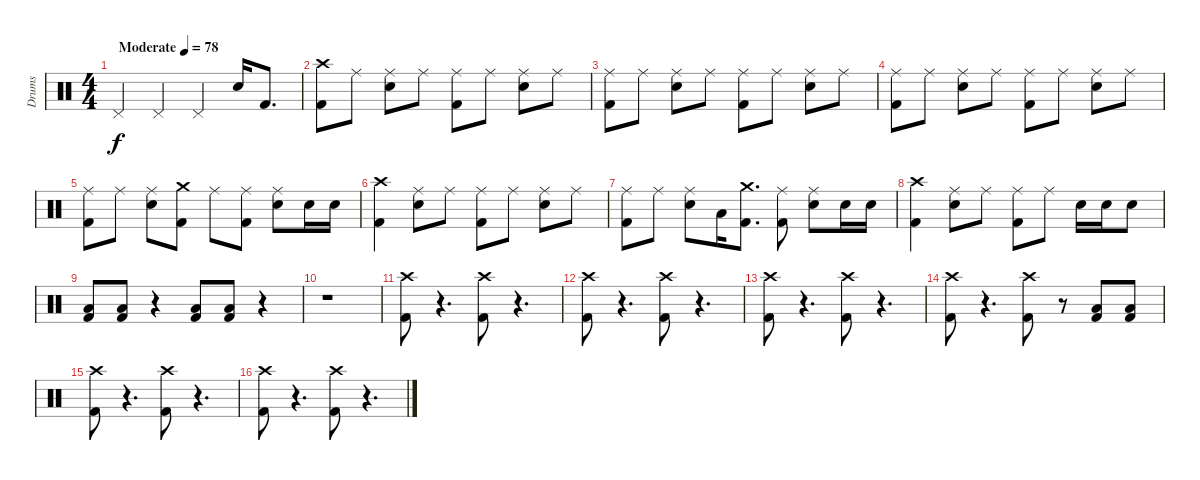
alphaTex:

\track ("Drums" "Drums") {instrument percussion}
\staff {score}
\articulation defaults
\ts (4 4)
\tempo (78 "Moderate")
\clef neutral
\ks c "Pedal Hi-Hat (hit)".4{dy f} "Pedal Hi-Hat (hit)".4 "Pedal Hi-Hat (hit)".4 "Snare (hit) 2".16 "Kick (hit) 2".8{d}
|
("Crash high (hit)" "Kick (hit) 2").8 "Ride (middle)".8 ("Ride (middle)" "Snare (hit) 2").8 "Ride (middle)".8 ("Ride (middle)" "Kick (hit) 2").8 "Ride (middle)".8 ("Ride (middle)" "Snare (hit) 2").8 "Ride (middle)".8 |
("Ride (middle)" "Kick (hit) 2").8 "Ride (middle)".8 ("Ride (middle)" "Snare (hit) 2").8 "Ride (middle)".8 ("Ride (middle)" "Kick (hit) 2").8 "Ride (middle)".8 ("Ride (middle)" "Snare (hit) 2").8 "Ride (middle)".8 |
("Ride (middle)" "Kick (hit) 2").8 "Ride (middle)".8 ("Ride (middle)" "Snare (hit) 2").8 "Ride (middle)".8 ("Ride (middle)" "Kick (hit) 2").8 "Ride (middle)".8 ("Ride (middle)" "Snare (hit) 2").8 "Ride (middle)".8 |
("Ride (middle)" "Kick (hit) 2").8 "Ride (middle)".8 ("Ride (middle)" "Snare (hit) 2").8 ("Crash medium (hit)" "Kick (hit) 2").8 "Ride (middle)".8 ("Ride (middle)" "Kick (hit) 2").8 ("Ride (middle)" "Snare (hit) 2").8 "Snare (hit) 2".16 "Snare (hit) 2".16 |
("Crash high (hit)" "Kick (hit) 2").4 ("Ride (middle)" "Snare (hit) 2").8 "Ride (middle)".8 ("Ride (middle)" "Kick (hit) 2").8 "Ride (middle)".8 ("Ride (middle)" "Snare (hit) 2").8 "Ride (middle)".8 |
("Ride (middle)" "Kick (hit) 2").8 "Ride (middle)".8 ("Ride (middle)" "Snare (hit) 2").8 "Low Tom (hit)".16 ("Crash medium (hit)" "Kick (hit) 2").8{d} ("Ride (middle)" "Kick (hit) 2").8 ("Ride (middle)" "Snare (hit) 2").8 "Snare (hit) 2".16 "Snare (hit) 2".16 |
("Crash high (hit)" "Kick (hit) 2").4 ("Ride (middle)" "Snare (hit) 2").8 "Ride (middle)".8 ("Ride (middle)" "Kick (hit) 2").8 "Ride (middle)".8 "Snare (hit) 2".16 "Snare (hit) 2".16 "Snare (hit) 2".8 |
("Low Tom (hit)" "Kick (hit) 2").8 ("Low Tom (hit)" "Kick (hit) 2").8 r.4 ("Low Tom (hit)" "Kick (hit) 2").8 ("Low Tom (hit)" "Kick (hit) 2").8 r.4 |
r.1 |
("Crash high (hit)" "Kick (hit) 2").8 r.4{d} ("Crash high (hit)" "Kick (hit) 2").8 r.4{d} |
("Crash high (hit)" "Kick (hit) 2").8 r.4{d} ("Crash high (hit)" "Kick (hit) 2").8 r.4{d} |
("Crash high (hit)" "Kick (hit) 2").8 r.4{d} ("Crash high (hit)" "Kick (hit) 2").8 r.4{d} |
("Crash high (hit)" "Kick (hit) 2").8 r.4{d} ("Crash high (hit)" "Kick (hit) 2").8 r.8 ("Low Tom (hit)" "Kick (hit) 2").8 ("Low Tom (hit)" "Kick (hit) 2").8 |
("Crash high (hit)" "Kick (hit) 2").8 r.4{d} ("Crash high (hit)" "Kick (hit) 2").8 r.4{d} |
("Crash high (hit)" "Kick (hit) 2").8 r.4{d} ("Crash high (hit)" "Kick (hit) 2").8 r.4{d}
